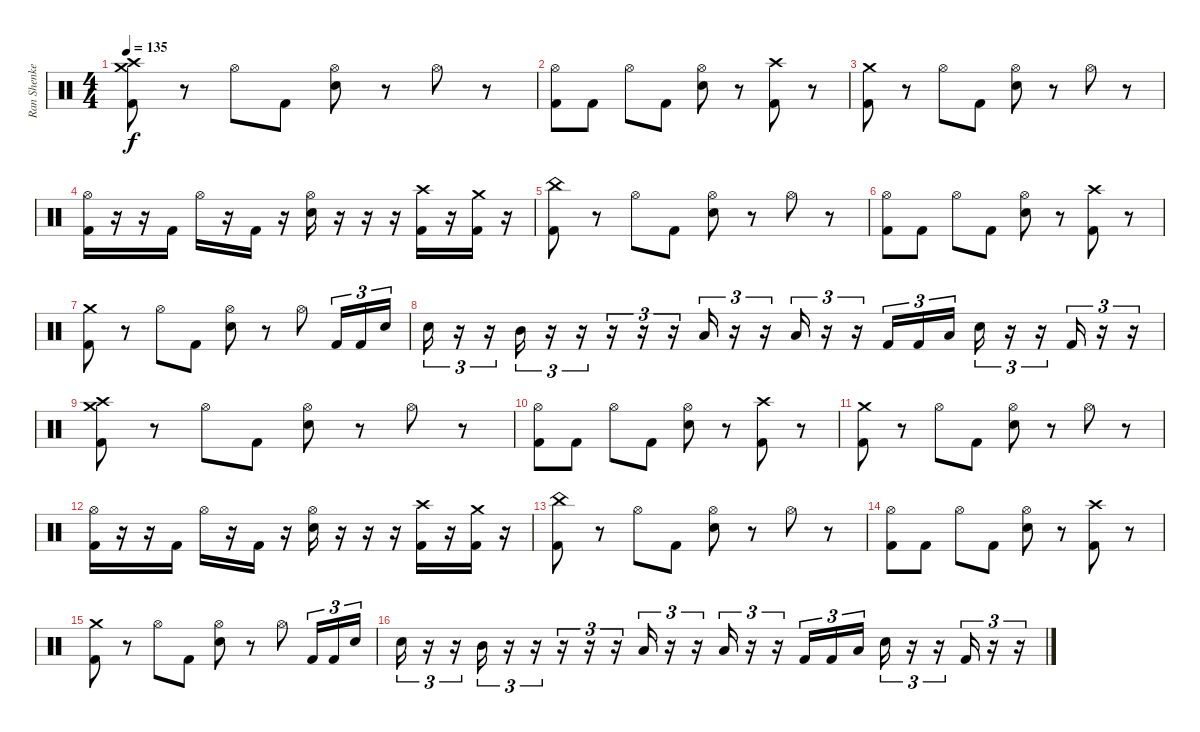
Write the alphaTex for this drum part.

\track ("Ran Shenkerman" "Ran Shenke") {instrument percussion}
\staff {score}
\articulation defaults
\ts (4 4)
\tempo 135
\clef neutral
\ks c
("Crash high (hit)" "Crash medium (hit)" "Kick (hit) 2").8{dy f} r.8 "Hi-Hat (open)".8 "Kick (hit) 2".8 ("Hi-Hat (open)" "Snare (hit) 2").8 r.8 "Hi-Hat (open)".8 r.8 |
("Hi-Hat (open)" "Kick (hit) 2").8 "Kick (hit) 2".8 "Hi-Hat (open)".8 "Kick (hit) 2".8 ("Hi-Hat (open)" "Snare (hit) 2").8 r.8 ("Crash high (hit)" "Kick (hit) 2").8 r.8 |
("Crash medium (hit)" "Kick (hit) 2").8 r.8 "Hi-Hat (open)".8 "Kick (hit) 2".8 ("Hi-Hat (open)" "Snare (hit) 2").8 r.8 "Hi-Hat (open)".8 r.8 |
("Hi-Hat (open)" "Kick (hit) 2").16 r.16 r.16 "Kick (hit) 2".16 "Hi-Hat (open)".16 r.16 "Kick (hit) 2".16 r.16 ("Hi-Hat (open)" "Snare (hit) 2").16 r.16 r.16 r.16 ("Crash high (hit)" "Kick (hit) 2").16 r.16 ("Crash medium (hit)" "Kick (hit) 2").16 r.16 |
("China (hit)" "Kick (hit) 2").8 r.8 "Hi-Hat (open)".8 "Kick (hit) 2".8 ("Hi-Hat (open)" "Snare (hit) 2").8 r.8 "Hi-Hat (open)".8 r.8 |
("Hi-Hat (open)" "Kick (hit) 2").8 "Kick (hit) 2".8 "Hi-Hat (open)".8 "Kick (hit) 2".8 ("Hi-Hat (open)" "Snare (hit) 2").8 r.8 ("Crash high (hit)" "Kick (hit) 2").8 r.8 |
("Crash medium (hit)" "Kick (hit) 2").8 r.8 "Hi-Hat (open)".8 "Kick (hit) 2".8 ("Hi-Hat (open)" "Snare (hit) 2").8 r.8 "Hi-Hat (open)".8 "Kick (hit) 2".16{tu (3 2)} "Kick (hit) 2".16{tu (3 2)} "Snare (hit) 2".16{tu (3 2)} |
"Snare (hit) 2".16{tu (3 2)} r.16{tu (3 2)} r.16{tu (3 2)} "Mid Tom (hit)".16{tu (3 2)} r.16{tu (3 2)} r.16{tu (3 2)} r.16{tu (3 2)} r.16{tu (3 2)} r.16{tu (3 2)} "Low Tom (hit)".16{tu (3 2)} r.16{tu (3 2)} r.16{tu (3 2)} "Low Tom (hit)".16{tu (3 2)} r.16{tu (3 2)} r.16{tu (3 2)} "Kick (hit) 2".16{tu (3 2)} "Kick (hit) 2".16{tu (3 2)} "Low Floor Tom (hit)".16{tu (3 2)} "Snare (hit) 2".16{tu (3 2)} r.16{tu (3 2)} r.16{tu (3 2)} "Kick (hit) 2".16{tu (3 2)} r.16{tu (3 2)} r.16{tu (3 2)} |
("Crash high (hit)" "Crash medium (hit)" "Kick (hit) 2").8 r.8 "Hi-Hat (open)".8 "Kick (hit) 2".8 ("Hi-Hat (open)" "Snare (hit) 2").8 r.8 "Hi-Hat (open)".8 r.8 |
("Hi-Hat (open)" "Kick (hit) 2").8 "Kick (hit) 2".8 "Hi-Hat (open)".8 "Kick (hit) 2".8 ("Hi-Hat (open)" "Snare (hit) 2").8 r.8 ("Crash high (hit)" "Kick (hit) 2").8 r.8 |
("Crash medium (hit)" "Kick (hit) 2").8 r.8 "Hi-Hat (open)".8 "Kick (hit) 2".8 ("Hi-Hat (open)" "Snare (hit) 2").8 r.8 "Hi-Hat (open)".8 r.8 |
("Hi-Hat (open)" "Kick (hit) 2").16 r.16 r.16 "Kick (hit) 2".16 "Hi-Hat (open)".16 r.16 "Kick (hit) 2".16 r.16 ("Hi-Hat (open)" "Snare (hit) 2").16 r.16 r.16 r.16 ("Crash high (hit)" "Kick (hit) 2").16 r.16 ("Crash medium (hit)" "Kick (hit) 2").16 r.16 |
("China (hit)" "Kick (hit) 2").8 r.8 "Hi-Hat (open)".8 "Kick (hit) 2".8 ("Hi-Hat (open)" "Snare (hit) 2").8 r.8 "Hi-Hat (open)".8 r.8 |
("Hi-Hat (open)" "Kick (hit) 2").8 "Kick (hit) 2".8 "Hi-Hat (open)".8 "Kick (hit) 2".8 ("Hi-Hat (open)" "Snare (hit) 2").8 r.8 ("Crash high (hit)" "Kick (hit) 2").8 r.8 |
("Crash medium (hit)" "Kick (hit) 2").8 r.8 "Hi-Hat (open)".8 "Kick (hit) 2".8 ("Hi-Hat (open)" "Snare (hit) 2").8 r.8 "Hi-Hat (open)".8 "Kick (hit) 2".16{tu (3 2)} "Kick (hit) 2".16{tu (3 2)} "Snare (hit) 2".16{tu (3 2)} |
"Snare (hit) 2".16{tu (3 2)} r.16{tu (3 2)} r.16{tu (3 2)} "Mid Tom (hit)".16{tu (3 2)} r.16{tu (3 2)} r.16{tu (3 2)} r.16{tu (3 2)} r.16{tu (3 2)} r.16{tu (3 2)} "Low Tom (hit)".16{tu (3 2)} r.16{tu (3 2)} r.16{tu (3 2)} "Low Tom (hit)".16{tu (3 2)} r.16{tu (3 2)} r.16{tu (3 2)} "Kick (hit) 2".16{tu (3 2)} "Kick (hit) 2".16{tu (3 2)} "Low Floor Tom (hit)".16{tu (3 2)} "Snare (hit) 2".16{tu (3 2)} r.16{tu (3 2)} r.16{tu (3 2)} "Kick (hit) 2".16{tu (3 2)} r.16{tu (3 2)} r.16{tu (3 2)}
